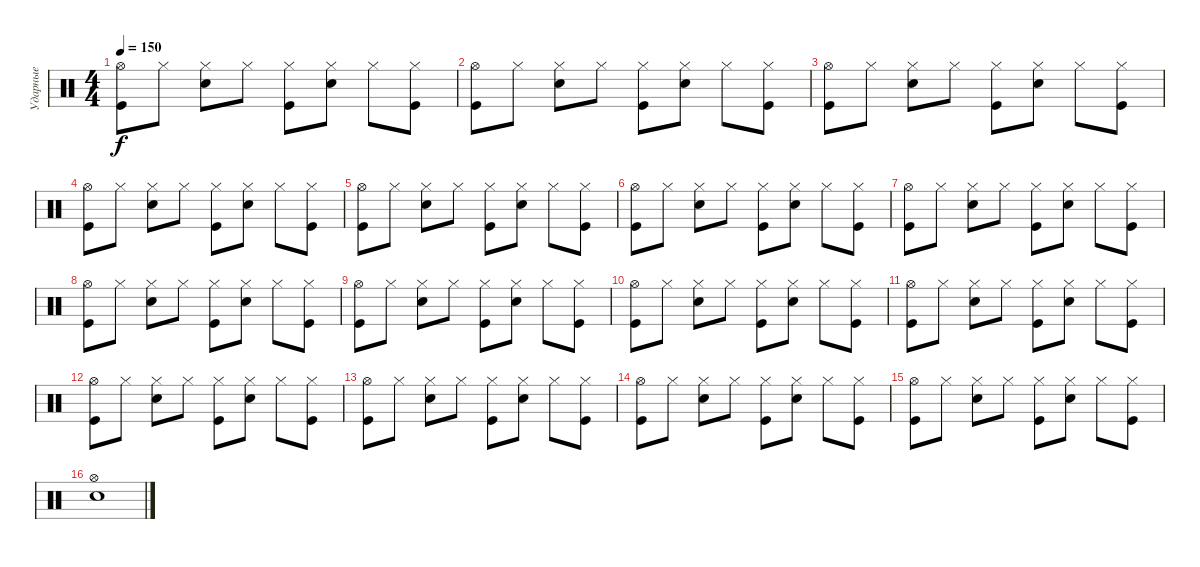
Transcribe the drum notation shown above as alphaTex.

\track ("Ударные" "Ударные") {instrument percussion}
\staff {score}
\articulation defaults
\ts (4 4)
\tempo 150
\clef neutral
\ks c
("Hi-Hat (open)" "Kick (hit)").8{dy f} "Hi-Hat (closed)".8 ("Hi-Hat (closed)" "Snare (hit) 2").8 "Hi-Hat (closed)".8 ("Hi-Hat (closed)" "Kick (hit)").8 ("Hi-Hat (closed)" "Snare (hit) 2").8 "Hi-Hat (closed)".8 ("Hi-Hat (closed)" "Kick (hit)").8 |
("Hi-Hat (open)" "Kick (hit)").8 "Hi-Hat (closed)".8 ("Hi-Hat (closed)" "Snare (hit) 2").8 "Hi-Hat (closed)".8 ("Hi-Hat (closed)" "Kick (hit)").8 ("Hi-Hat (closed)" "Snare (hit) 2").8 "Hi-Hat (closed)".8 ("Hi-Hat (closed)" "Kick (hit)").8 |
("Hi-Hat (open)" "Kick (hit)").8 "Hi-Hat (closed)".8 ("Hi-Hat (closed)" "Snare (hit) 2").8 "Hi-Hat (closed)".8 ("Hi-Hat (closed)" "Kick (hit)").8 ("Hi-Hat (closed)" "Snare (hit) 2").8 "Hi-Hat (closed)".8 ("Hi-Hat (closed)" "Kick (hit)").8 |
("Hi-Hat (open)" "Kick (hit)").8 "Hi-Hat (closed)".8 ("Hi-Hat (closed)" "Snare (hit) 2").8 "Hi-Hat (closed)".8 ("Hi-Hat (closed)" "Kick (hit)").8 ("Hi-Hat (closed)" "Snare (hit) 2").8 "Hi-Hat (closed)".8 ("Hi-Hat (closed)" "Kick (hit)").8 |
("Hi-Hat (open)" "Kick (hit)").8 "Hi-Hat (closed)".8 ("Hi-Hat (closed)" "Snare (hit) 2").8 "Hi-Hat (closed)".8 ("Hi-Hat (closed)" "Kick (hit)").8 ("Hi-Hat (closed)" "Snare (hit) 2").8 "Hi-Hat (closed)".8 ("Hi-Hat (closed)" "Kick (hit)").8 |
("Hi-Hat (open)" "Kick (hit)").8 "Hi-Hat (closed)".8 ("Hi-Hat (closed)" "Snare (hit) 2").8 "Hi-Hat (closed)".8 ("Hi-Hat (closed)" "Kick (hit)").8 ("Hi-Hat (closed)" "Snare (hit) 2").8 "Hi-Hat (closed)".8 ("Hi-Hat (closed)" "Kick (hit)").8 |
("Hi-Hat (open)" "Kick (hit)").8 "Hi-Hat (closed)".8 ("Hi-Hat (closed)" "Snare (hit) 2").8 "Hi-Hat (closed)".8 ("Hi-Hat (closed)" "Kick (hit)").8 ("Hi-Hat (closed)" "Snare (hit) 2").8 "Hi-Hat (closed)".8 ("Hi-Hat (closed)" "Kick (hit)").8 |
("Hi-Hat (open)" "Kick (hit)").8 "Hi-Hat (closed)".8 ("Hi-Hat (closed)" "Snare (hit) 2").8 "Hi-Hat (closed)".8 ("Hi-Hat (closed)" "Kick (hit)").8 ("Hi-Hat (closed)" "Snare (hit) 2").8 "Hi-Hat (closed)".8 ("Hi-Hat (closed)" "Kick (hit)").8 |
("Hi-Hat (open)" "Kick (hit)").8 "Hi-Hat (closed)".8 ("Hi-Hat (closed)" "Snare (hit) 2").8 "Hi-Hat (closed)".8 ("Hi-Hat (closed)" "Kick (hit)").8 ("Hi-Hat (closed)" "Snare (hit) 2").8 "Hi-Hat (closed)".8 ("Hi-Hat (closed)" "Kick (hit)").8 |
("Hi-Hat (open)" "Kick (hit)").8 "Hi-Hat (closed)".8 ("Hi-Hat (closed)" "Snare (hit) 2").8 "Hi-Hat (closed)".8 ("Hi-Hat (closed)" "Kick (hit)").8 ("Hi-Hat (closed)" "Snare (hit) 2").8 "Hi-Hat (closed)".8 ("Hi-Hat (closed)" "Kick (hit)").8 |
("Hi-Hat (open)" "Kick (hit)").8 "Hi-Hat (closed)".8 ("Hi-Hat (closed)" "Snare (hit) 2").8 "Hi-Hat (closed)".8 ("Hi-Hat (closed)" "Kick (hit)").8 ("Hi-Hat (closed)" "Snare (hit) 2").8 "Hi-Hat (closed)".8 ("Hi-Hat (closed)" "Kick (hit)").8 |
("Hi-Hat (open)" "Kick (hit)").8 "Hi-Hat (closed)".8 ("Hi-Hat (closed)" "Snare (hit) 2").8 "Hi-Hat (closed)".8 ("Hi-Hat (closed)" "Kick (hit)").8 ("Hi-Hat (closed)" "Snare (hit) 2").8 "Hi-Hat (closed)".8 ("Hi-Hat (closed)" "Kick (hit)").8 |
("Hi-Hat (open)" "Kick (hit)").8 "Hi-Hat (closed)".8 ("Hi-Hat (closed)" "Snare (hit) 2").8 "Hi-Hat (closed)".8 ("Hi-Hat (closed)" "Kick (hit)").8 ("Hi-Hat (closed)" "Snare (hit) 2").8 "Hi-Hat (closed)".8 ("Hi-Hat (closed)" "Kick (hit)").8 |
("Hi-Hat (open)" "Kick (hit)").8 "Hi-Hat (closed)".8 ("Hi-Hat (closed)" "Snare (hit) 2").8 "Hi-Hat (closed)".8 ("Hi-Hat (closed)" "Kick (hit)").8 ("Hi-Hat (closed)" "Snare (hit) 2").8 "Hi-Hat (closed)".8 ("Hi-Hat (closed)" "Kick (hit)").8 |
("Hi-Hat (open)" "Kick (hit)").8 "Hi-Hat (closed)".8 ("Hi-Hat (closed)" "Snare (hit) 2").8 "Hi-Hat (closed)".8 ("Hi-Hat (closed)" "Kick (hit)").8 ("Hi-Hat (closed)" "Snare (hit) 2").8 "Hi-Hat (closed)".8 ("Hi-Hat (closed)" "Kick (hit)").8 |
("Hi-Hat (open)" "Snare (hit) 2").1
